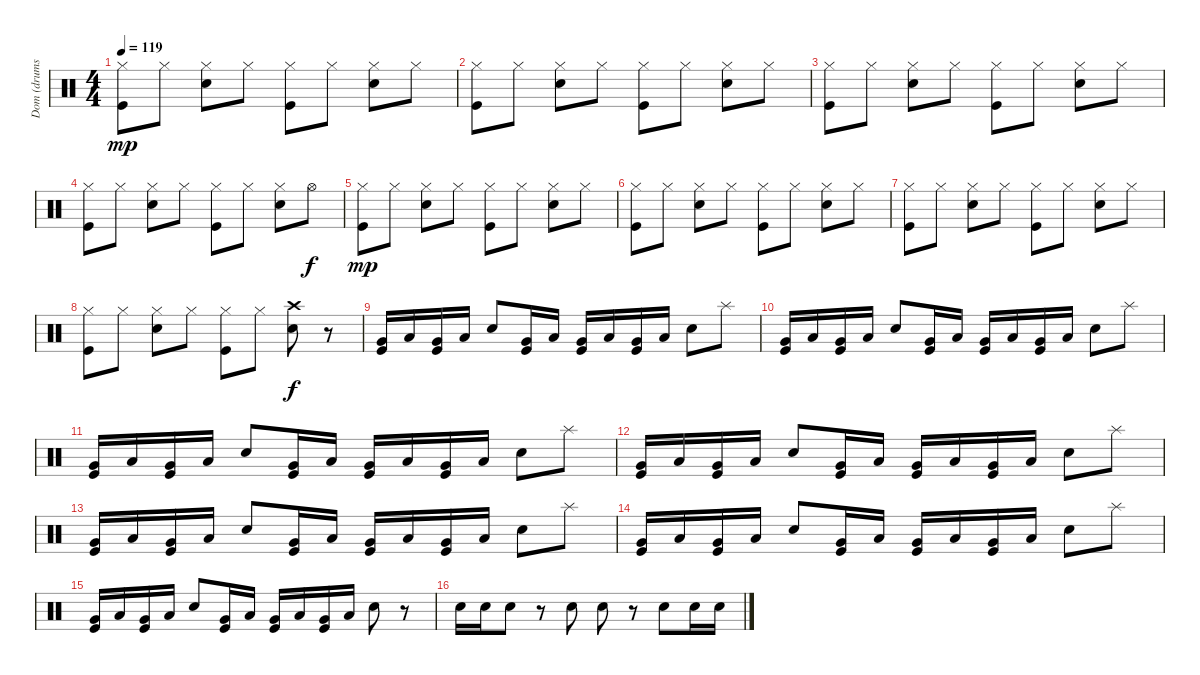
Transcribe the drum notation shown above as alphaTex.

\track ("Dom (drums)" "Dom (drums") {instrument percussion}
\staff {score}
\articulation defaults
\ts (4 4)
\tempo 119
\clef neutral
\ks c
("Hi-Hat (closed)" "Kick (hit)").8{dy mp} "Hi-Hat (closed)".8 ("Hi-Hat (closed)" "Snare (hit) 2").8 "Hi-Hat (closed)".8 ("Hi-Hat (closed)" "Kick (hit)").8 "Hi-Hat (closed)".8 ("Hi-Hat (closed)" "Snare (hit) 2").8 "Hi-Hat (closed)".8 |
("Hi-Hat (closed)" "Kick (hit)").8 "Hi-Hat (closed)".8 ("Hi-Hat (closed)" "Snare (hit) 2").8 "Hi-Hat (closed)".8 ("Hi-Hat (closed)" "Kick (hit)").8 "Hi-Hat (closed)".8 ("Hi-Hat (closed)" "Snare (hit) 2").8 "Hi-Hat (closed)".8 |
("Hi-Hat (closed)" "Kick (hit)").8 "Hi-Hat (closed)".8 ("Hi-Hat (closed)" "Snare (hit) 2").8 "Hi-Hat (closed)".8 ("Hi-Hat (closed)" "Kick (hit)").8 "Hi-Hat (closed)".8 ("Hi-Hat (closed)" "Snare (hit) 2").8 "Hi-Hat (closed)".8 |
("Hi-Hat (closed)" "Kick (hit)").8 "Hi-Hat (closed)".8 ("Hi-Hat (closed)" "Snare (hit) 2").8 "Hi-Hat (closed)".8 ("Hi-Hat (closed)" "Kick (hit)").8 "Hi-Hat (closed)".8 ("Hi-Hat (closed)" "Snare (hit) 2").8 "Hi-Hat (open)".8{dy f} |
("Hi-Hat (closed)" "Kick (hit)").8{dy mp} "Hi-Hat (closed)".8 ("Hi-Hat (closed)" "Snare (hit) 2").8 "Hi-Hat (closed)".8 ("Hi-Hat (closed)" "Kick (hit)").8 "Hi-Hat (closed)".8 ("Hi-Hat (closed)" "Snare (hit) 2").8 "Hi-Hat (closed)".8 |
("Hi-Hat (closed)" "Kick (hit)").8 "Hi-Hat (closed)".8 ("Hi-Hat (closed)" "Snare (hit) 2").8 "Hi-Hat (closed)".8 ("Hi-Hat (closed)" "Kick (hit)").8 "Hi-Hat (closed)".8 ("Hi-Hat (closed)" "Snare (hit) 2").8 "Hi-Hat (closed)".8 |
("Hi-Hat (closed)" "Kick (hit)").8 "Hi-Hat (closed)".8 ("Hi-Hat (closed)" "Snare (hit) 2").8 "Hi-Hat (closed)".8 ("Hi-Hat (closed)" "Kick (hit)").8 "Hi-Hat (closed)".8 ("Hi-Hat (closed)" "Snare (hit) 2").8 "Hi-Hat (closed)".8 |
("Hi-Hat (closed)" "Kick (hit)").8 "Hi-Hat (closed)".8 ("Hi-Hat (closed)" "Snare (hit) 2").8 "Hi-Hat (closed)".8 ("Hi-Hat (closed)" "Kick (hit)").8 "Hi-Hat (closed)".8 ("Crash high (hit)" "Snare (hit) 2").8{dy f} r.8 |
("Very Low Tom (hit)" "Kick (hit)").16 "Low Tom (hit)".16 ("Very Low Tom (hit)" "Kick (hit)").16 "Low Tom (hit)".16 "Snare (hit) 2".8 ("Very Low Tom (hit)" "Kick (hit)").16 "Low Tom (hit)".16 ("Very Low Tom (hit)" "Kick (hit)").16 "Low Tom (hit)".16 ("Very Low Tom (hit)" "Kick (hit)").16 "Low Tom (hit)".16 "Snare (hit) 2".8 "Splash (hit)".8 |
("Very Low Tom (hit)" "Kick (hit)").16 "Low Tom (hit)".16 ("Very Low Tom (hit)" "Kick (hit)").16 "Low Tom (hit)".16 "Snare (hit) 2".8 ("Very Low Tom (hit)" "Kick (hit)").16 "Low Tom (hit)".16 ("Very Low Tom (hit)" "Kick (hit)").16 "Low Tom (hit)".16 ("Very Low Tom (hit)" "Kick (hit)").16 "Low Tom (hit)".16 "Snare (hit) 2".8 "Splash (hit)".8 |
("Very Low Tom (hit)" "Kick (hit)").16 "Low Tom (hit)".16 ("Very Low Tom (hit)" "Kick (hit)").16 "Low Tom (hit)".16 "Snare (hit) 2".8 ("Very Low Tom (hit)" "Kick (hit)").16 "Low Tom (hit)".16 ("Very Low Tom (hit)" "Kick (hit)").16 "Low Tom (hit)".16 ("Very Low Tom (hit)" "Kick (hit)").16 "Low Tom (hit)".16 "Snare (hit) 2".8 "Splash (hit)".8 |
("Very Low Tom (hit)" "Kick (hit)").16 "Low Tom (hit)".16 ("Very Low Tom (hit)" "Kick (hit)").16 "Low Tom (hit)".16 "Snare (hit) 2".8 ("Very Low Tom (hit)" "Kick (hit)").16 "Low Tom (hit)".16 ("Very Low Tom (hit)" "Kick (hit)").16 "Low Tom (hit)".16 ("Very Low Tom (hit)" "Kick (hit)").16 "Low Tom (hit)".16 "Snare (hit) 2".8 "Splash (hit)".8 |
("Very Low Tom (hit)" "Kick (hit)").16 "Low Tom (hit)".16 ("Very Low Tom (hit)" "Kick (hit)").16 "Low Tom (hit)".16 "Snare (hit) 2".8 ("Very Low Tom (hit)" "Kick (hit)").16 "Low Tom (hit)".16 ("Very Low Tom (hit)" "Kick (hit)").16 "Low Tom (hit)".16 ("Very Low Tom (hit)" "Kick (hit)").16 "Low Tom (hit)".16 "Snare (hit) 2".8 "Splash (hit)".8 |
("Very Low Tom (hit)" "Kick (hit)").16 "Low Tom (hit)".16 ("Very Low Tom (hit)" "Kick (hit)").16 "Low Tom (hit)".16 "Snare (hit) 2".8 ("Very Low Tom (hit)" "Kick (hit)").16 "Low Tom (hit)".16 ("Very Low Tom (hit)" "Kick (hit)").16 "Low Tom (hit)".16 ("Very Low Tom (hit)" "Kick (hit)").16 "Low Tom (hit)".16 "Snare (hit) 2".8 "Splash (hit)".8 |
("Very Low Tom (hit)" "Kick (hit)").16 "Low Tom (hit)".16 ("Very Low Tom (hit)" "Kick (hit)").16 "Low Tom (hit)".16 "Snare (hit) 2".8 ("Very Low Tom (hit)" "Kick (hit)").16 "Low Tom (hit)".16 ("Very Low Tom (hit)" "Kick (hit)").16 "Low Tom (hit)".16 ("Very Low Tom (hit)" "Kick (hit)").16 "Low Tom (hit)".16 "Snare (hit) 2".8 r.8 |
"Snare (hit) 2".16 "Snare (hit) 2".16 "Snare (hit) 2".8 r.8 "Snare (hit) 2".8 "Snare (hit) 2".8 r.8 "Snare (hit) 2".8 "Snare (hit) 2".16 "Snare (hit) 2".16
